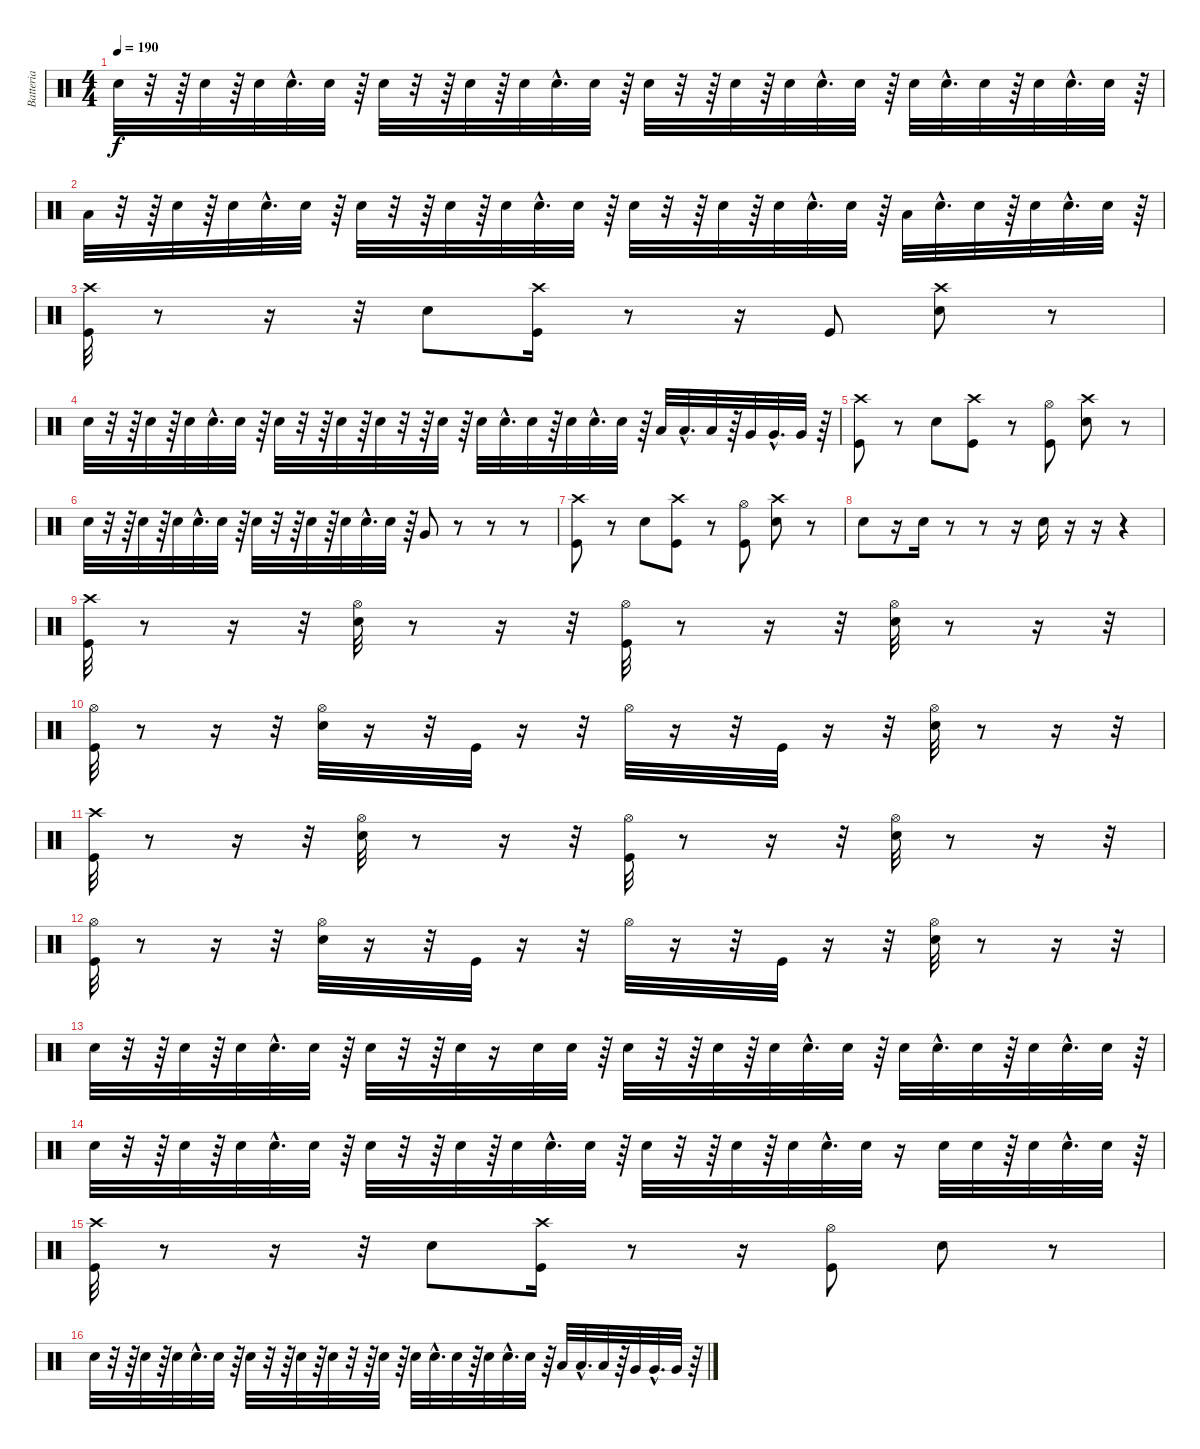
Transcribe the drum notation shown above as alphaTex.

\track ("Batteria" "Batteria") {instrument percussion}
\staff {score}
\articulation defaults
\ts (4 4)
\tempo 190
\clef neutral
\ks c "Snare (hit) 2".32{dy f}
r.32 r.64 "Snare (hit) 2".32 r.64 "Snare (hit) 2".32 "Snare (hit) 2"{hac}.32{d} "Snare (hit) 2".32 r.64 "Snare (hit) 2".32 r.32 r.64 "Snare (hit) 2".32 r.64 "Snare (hit) 2".32 "Snare (hit) 2"{hac}.32{d} "Snare (hit) 2".32 r.64 "Snare (hit) 2".32 r.32 r.64 "Snare (hit) 2".32 r.64 "Snare (hit) 2".32 "Snare (hit) 2"{hac}.32{d} "Snare (hit) 2".32 r.64 "Snare (hit) 2".32 "Snare (hit) 2"{hac}.32{d} "Snare (hit) 2".32 r.64 "Snare (hit) 2".32 "Snare (hit) 2"{hac}.32{d} "Snare (hit) 2".32 r.64 |
"Low Tom (hit)".32 r.32 r.64 "Snare (hit) 2".32 r.64 "Snare (hit) 2".32 "Snare (hit) 2"{hac}.32{d} "Snare (hit) 2".32 r.64 "Snare (hit) 2".32 r.32 r.64 "Snare (hit) 2".32 r.64 "Snare (hit) 2".32 "Snare (hit) 2"{hac}.32{d} "Snare (hit) 2".32 r.64 "Snare (hit) 2".32 r.32 r.64 "Snare (hit) 2".32 r.64 "Snare (hit) 2".32 "Snare (hit) 2"{hac}.32{d} "Snare (hit) 2".32 r.64 "Low Tom (hit)".32 "Snare (hit) 2"{hac}.32{d} "Snare (hit) 2".32 r.64 "Snare (hit) 2".32 "Snare (hit) 2"{hac}.32{d} "Snare (hit) 2".32 r.64 |
("Kick (hit)" "Crash high (hit)").32 r.8 r.16 r.32 "Snare (hit) 2".8 ("Kick (hit)" "Crash high (hit)").16 r.8 r.16 "Kick (hit)".8 ("Snare (hit) 2" "Crash high (hit)").8 r.8 |
"Snare (hit) 2".32 r.32 r.64 "Snare (hit) 2".32 r.64 "Snare (hit) 2".32 "Snare (hit) 2"{hac}.32{d} "Snare (hit) 2".32 r.64 "Snare (hit) 2".32 r.32 r.64 "Snare (hit) 2".32 r.64 "Snare (hit) 2".32 r.32 r.64 "Snare (hit) 2".32 r.64 "Snare (hit) 2".32 "Snare (hit) 2"{hac}.32{d} "Snare (hit) 2".32 r.64 "Snare (hit) 2".32 "Snare (hit) 2"{hac}.32{d} "Snare (hit) 2".32 r.64 "Low Tom (hit)".32 "Low Tom (hit)"{hac}.32{d} "Low Tom (hit)".32 r.64 "Very Low Tom (hit)".32 "Very Low Tom (hit)"{hac}.32{d} "Very Low Tom (hit)".32 r.64 |
("Kick (hit)" "Crash high (hit)").8 r.8 "Snare (hit) 2".8 ("Crash high (hit)" "Kick (hit)").8 r.8 ("Hi-Hat (open)" "Kick (hit)").8 ("Crash high (hit)" "Snare (hit) 2").8 r.8 |
"Snare (hit) 2".32 r.32 r.64 "Snare (hit) 2".32 r.64 "Snare (hit) 2".32 "Snare (hit) 2"{hac}.32{d} "Snare (hit) 2".32 r.64 "Snare (hit) 2".32 r.32 r.64 "Snare (hit) 2".32 r.64 "Snare (hit) 2".32 "Snare (hit) 2"{hac}.32{d} "Snare (hit) 2".32 r.64 "Very Low Tom (hit)".8 r.8 r.8 r.8 |
("Kick (hit)" "Crash high (hit)").8 r.8 "Snare (hit) 2".8 ("Kick (hit)" "Crash high (hit)").8 r.8 ("Kick (hit)" "Hi-Hat (open)").8 ("Crash high (hit)" "Snare (hit) 2").8 r.8 |
"Snare (hit) 2".8 r.16 "Snare (hit) 2".16 r.8 r.8 r.16 "Snare (hit) 2".16 r.16 r.16 r.4 |
("Kick (hit)" "Crash high (hit)").32 r.8 r.16 r.32 ("Snare (hit) 2" "Hi-Hat (open)").32 r.8 r.16 r.32 ("Hi-Hat (open)" "Kick (hit)").32 r.8 r.16 r.32 ("Snare (hit) 2" "Hi-Hat (open)").32 r.8 r.16 r.32 |
("Kick (hit)" "Hi-Hat (open)").32 r.8 r.16 r.32 ("Snare (hit) 2" "Hi-Hat (open)").32 r.16 r.32 "Kick (hit)".32 r.16 r.32 "Hi-Hat (open)".32 r.16 r.32 "Kick (hit)".32 r.16 r.32 ("Snare (hit) 2" "Hi-Hat (open)").32 r.8 r.16 r.32 |
("Kick (hit)" "Crash high (hit)").32 r.8 r.16 r.32 ("Hi-Hat (open)" "Snare (hit) 2").32 r.8 r.16 r.32 ("Kick (hit)" "Hi-Hat (open)").32 r.8 r.16 r.32 ("Snare (hit) 2" "Hi-Hat (open)").32 r.8 r.16 r.32 |
("Hi-Hat (open)" "Kick (hit)").32 r.8 r.16 r.32 ("Snare (hit) 2" "Hi-Hat (open)").32 r.16 r.32 "Kick (hit)".32 r.16 r.32 "Hi-Hat (open)".32 r.16 r.32 "Kick (hit)".32 r.16 r.32 ("Hi-Hat (open)" "Snare (hit) 2").32 r.8 r.16 r.32 |
"Snare (hit) 2".32 r.32 r.64 "Snare (hit) 2".32 r.64 "Snare (hit) 2".32 "Snare (hit) 2"{hac}.32{d} "Snare (hit) 2".32 r.64 "Snare (hit) 2".32 r.32 r.64 "Snare (hit) 2".32 r.16 "Snare (hit) 2".32 "Snare (hit) 2".32 r.64 "Snare (hit) 2".32 r.32 r.64 "Snare (hit) 2".32 r.64 "Snare (hit) 2".32 "Snare (hit) 2"{hac}.32{d} "Snare (hit) 2".32 r.64 "Snare (hit) 2".32 "Snare (hit) 2"{hac}.32{d} "Snare (hit) 2".32 r.64 "Snare (hit) 2".32 "Snare (hit) 2"{hac}.32{d} "Snare (hit) 2".32 r.64 |
"Snare (hit) 2".32 r.32 r.64 "Snare (hit) 2".32 r.64 "Snare (hit) 2".32 "Snare (hit) 2"{hac}.32{d} "Snare (hit) 2".32 r.64 "Snare (hit) 2".32 r.32 r.64 "Snare (hit) 2".32 r.64 "Snare (hit) 2".32 "Snare (hit) 2"{hac}.32{d} "Snare (hit) 2".32 r.64 "Snare (hit) 2".32 r.32 r.64 "Snare (hit) 2".32 r.64 "Snare (hit) 2".32 "Snare (hit) 2"{hac}.32{d} "Snare (hit) 2".32 r.16 "Snare (hit) 2".32 "Snare (hit) 2".32 r.64 "Snare (hit) 2".32 "Snare (hit) 2"{hac}.32{d} "Snare (hit) 2".32 r.64 |
("Crash high (hit)" "Kick (hit)").32 r.8 r.16 r.32 "Snare (hit) 2".8 ("Kick (hit)" "Crash high (hit)").16 r.8 r.16 ("Hi-Hat (open)" "Kick (hit)").8 "Snare (hit) 2".8 r.8 |
"Snare (hit) 2".32 r.32 r.64 "Snare (hit) 2".32 r.64 "Snare (hit) 2".32 "Snare (hit) 2"{hac}.32{d} "Snare (hit) 2".32 r.64 "Snare (hit) 2".32 r.32 r.64 "Snare (hit) 2".32 r.64 "Snare (hit) 2".32 r.32 r.64 "Snare (hit) 2".32 r.64 "Snare (hit) 2".32 "Snare (hit) 2"{hac}.32{d} "Snare (hit) 2".32 r.64 "Snare (hit) 2".32 "Snare (hit) 2"{hac}.32{d} "Snare (hit) 2".32 r.64 "Low Tom (hit)".32 "Low Tom (hit)"{hac}.32{d} "Low Tom (hit)".32 r.64 "Very Low Tom (hit)".32 "Very Low Tom (hit)"{hac}.32{d} "Very Low Tom (hit)".32 r.64
